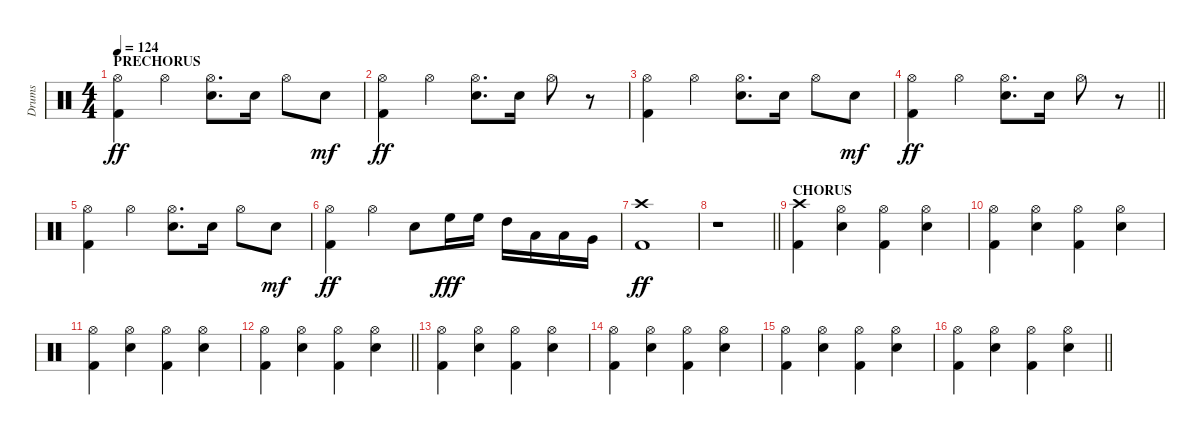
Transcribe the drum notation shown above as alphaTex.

\track ("Drums" "Drums") {instrument percussion}
\staff {score}
\articulation defaults
\ts (4 4)
\section ("" "PRECHORUS")
\tempo 124
\clef neutral
\ks c
("Hi-Hat (open)" "Kick (hit) 2").4{dy ff} "Hi-Hat (open)".4 ("Hi-Hat (open)" "Electric Snare (hit)").8{d} "Electric Snare (hit)".16 "Hi-Hat (open)".8 "Electric Snare (hit)".8{dy mf} |
("Hi-Hat (open)" "Kick (hit) 2").4{dy ff} "Hi-Hat (open)".4 ("Hi-Hat (open)" "Electric Snare (hit)").8{d} "Electric Snare (hit)".16 "Hi-Hat (open)".8 r.8 |
("Hi-Hat (open)" "Kick (hit) 2").4 "Hi-Hat (open)".4 ("Hi-Hat (open)" "Electric Snare (hit)").8{d} "Electric Snare (hit)".16 "Hi-Hat (open)".8 "Electric Snare (hit)".8{dy mf} |
\barLineRight lightlight
("Hi-Hat (open)" "Kick (hit) 2").4{dy ff} "Hi-Hat (open)".4 ("Hi-Hat (open)" "Electric Snare (hit)").8{d} "Electric Snare (hit)".16 "Hi-Hat (open)".8 r.8 |
\section ("" "")
("Hi-Hat (open)" "Kick (hit) 2").4 "Hi-Hat (open)".4 ("Hi-Hat (open)" "Electric Snare (hit)").8{d} "Electric Snare (hit)".16 "Hi-Hat (open)".8 "Electric Snare (hit)".8{dy mf} |
("Hi-Hat (open)" "Kick (hit) 2").4{dy ff} "Hi-Hat (open)".4 "Electric Snare (hit)".8 "High Floor Tom (hit)".16{dy fff} "High Floor Tom (hit)".16 "High Tom (hit)".16 "Low Tom (hit)".16 "Low Tom (hit)".16 "Very Low Tom (hit)".16 |
("Crash high (hit)" "Kick (hit) 2").1{dy ff} |
\barLineRight lightlight
r.1 |
\section ("" "CHORUS")
("Crash high (hit)" "Kick (hit) 2").4 ("Hi-Hat (open)" "Electric Snare (hit)").4 ("Hi-Hat (open)" "Kick (hit) 2").4 ("Hi-Hat (open)" "Electric Snare (hit)").4 |
("Hi-Hat (open)" "Kick (hit) 2").4 ("Hi-Hat (open)" "Electric Snare (hit)").4 ("Hi-Hat (open)" "Kick (hit) 2").4 ("Hi-Hat (open)" "Electric Snare (hit)").4 |
("Hi-Hat (open)" "Kick (hit) 2").4 ("Hi-Hat (open)" "Electric Snare (hit)").4 ("Hi-Hat (open)" "Kick (hit) 2").4 ("Hi-Hat (open)" "Electric Snare (hit)").4 |
\barLineRight lightlight
("Hi-Hat (open)" "Kick (hit) 2").4 ("Hi-Hat (open)" "Electric Snare (hit)").4 ("Hi-Hat (open)" "Kick (hit) 2").4 ("Hi-Hat (open)" "Electric Snare (hit)").4 |
\section ("" "")
("Hi-Hat (open)" "Kick (hit) 2").4 ("Hi-Hat (open)" "Electric Snare (hit)").4 ("Hi-Hat (open)" "Kick (hit) 2").4 ("Hi-Hat (open)" "Electric Snare (hit)").4 |
("Hi-Hat (open)" "Kick (hit) 2").4 ("Hi-Hat (open)" "Electric Snare (hit)").4 ("Hi-Hat (open)" "Kick (hit) 2").4 ("Hi-Hat (open)" "Electric Snare (hit)").4 |
("Hi-Hat (open)" "Kick (hit) 2").4 ("Hi-Hat (open)" "Electric Snare (hit)").4 ("Hi-Hat (open)" "Kick (hit) 2").4 ("Hi-Hat (open)" "Electric Snare (hit)").4 |
\barLineRight lightlight
("Hi-Hat (open)" "Kick (hit) 2").4 ("Hi-Hat (open)" "Electric Snare (hit)").4 ("Hi-Hat (open)" "Kick (hit) 2").4 ("Hi-Hat (open)" "Electric Snare (hit)").4
